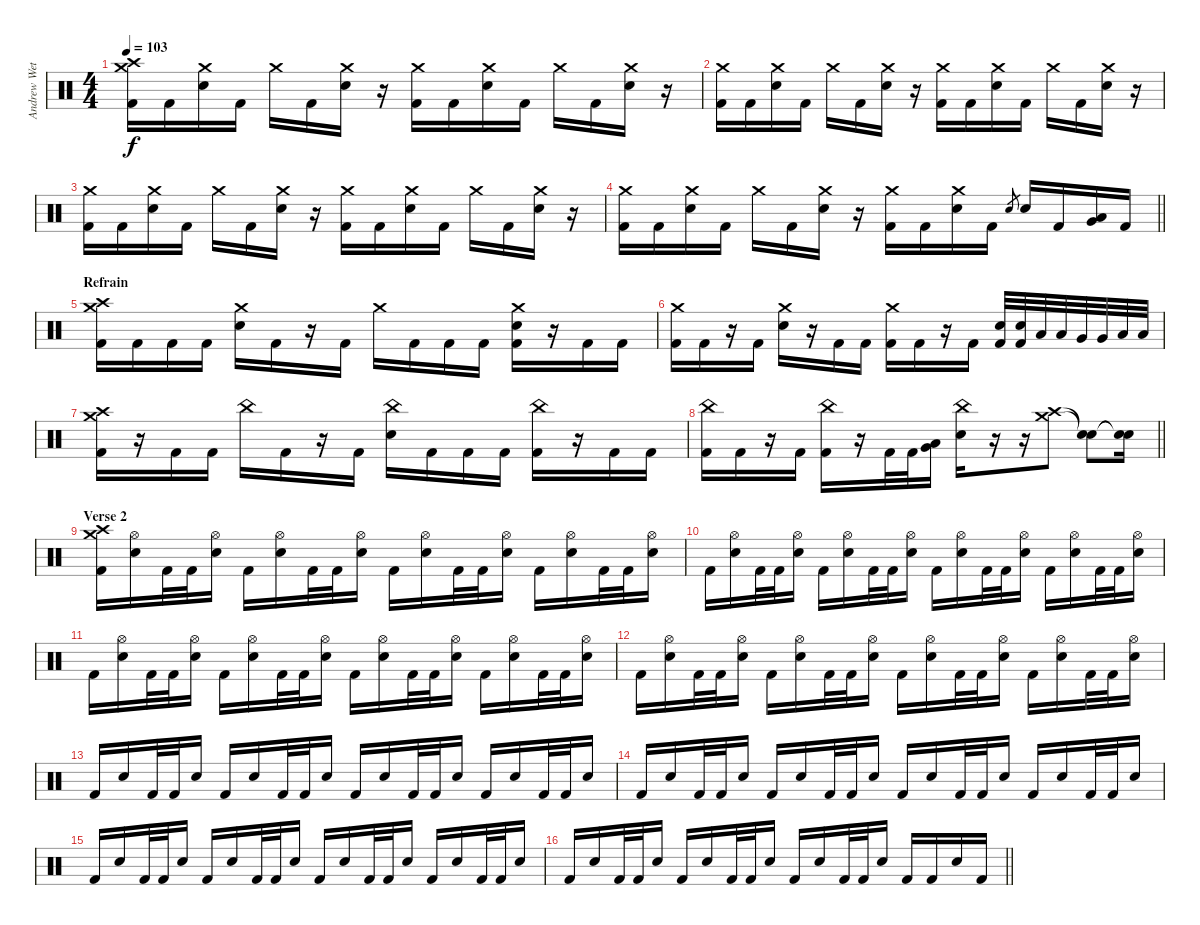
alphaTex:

\track ("Andrew Wetzel - Drums" "Andrew Wet") {instrument percussion}
\staff {score}
\articulation defaults
\ts (4 4)
\tempo 103
\clef neutral
\ks c
("Crash high (hit)" "Crash medium (hit)" "Kick (hit) 2").16{dy f} "Kick (hit) 2".16 ("Crash medium (hit)" "Electric Snare (hit)").16 "Kick (hit) 2".16 "Crash medium (hit)".16 "Kick (hit) 2".16 ("Crash medium (hit)" "Electric Snare (hit)").16 r.16 ("Crash medium (hit)" "Kick (hit) 2").16 "Kick (hit) 2".16 ("Crash medium (hit)" "Electric Snare (hit)").16 "Kick (hit) 2".16 "Crash medium (hit)".16 "Kick (hit) 2".16 ("Crash medium (hit)" "Electric Snare (hit)").16 r.16 |
("Crash medium (hit)" "Kick (hit) 2").16 "Kick (hit) 2".16 ("Crash medium (hit)" "Electric Snare (hit)").16 "Kick (hit) 2".16 "Crash medium (hit)".16 "Kick (hit) 2".16 ("Crash medium (hit)" "Electric Snare (hit)").16 r.16 ("Crash medium (hit)" "Kick (hit) 2").16 "Kick (hit) 2".16 ("Crash medium (hit)" "Electric Snare (hit)").16 "Kick (hit) 2".16 "Crash medium (hit)".16 "Kick (hit) 2".16 ("Crash medium (hit)" "Electric Snare (hit)").16 r.16 |
("Crash medium (hit)" "Kick (hit) 2").16 "Kick (hit) 2".16 ("Crash medium (hit)" "Electric Snare (hit)").16 "Kick (hit) 2".16 "Crash medium (hit)".16 "Kick (hit) 2".16 ("Crash medium (hit)" "Electric Snare (hit)").16 r.16 ("Crash medium (hit)" "Kick (hit) 2").16 "Kick (hit) 2".16 ("Crash medium (hit)" "Electric Snare (hit)").16 "Kick (hit) 2".16 "Crash medium (hit)".16 "Kick (hit) 2".16 ("Crash medium (hit)" "Electric Snare (hit)").16 r.16 |
\barLineRight lightlight
("Crash medium (hit)" "Kick (hit) 2").16 "Kick (hit) 2".16 ("Crash medium (hit)" "Electric Snare (hit)").16 "Kick (hit) 2".16 "Crash medium (hit)".16 "Kick (hit) 2".16 ("Crash medium (hit)" "Electric Snare (hit)").16 r.16 ("Crash medium (hit)" "Kick (hit) 2").16 "Kick (hit) 2".16 ("Crash medium (hit)" "Electric Snare (hit)").16 "Kick (hit) 2".16 "Electric Snare (hit)".8{gr} "Electric Snare (hit)".16 "Kick (hit) 2".16 ("Very Low Tom (hit)" "Low Floor Tom (hit)").16 "Kick (hit) 2".16 |
\section ("" "Refrain")
("Crash high (hit)" "Crash medium (hit)" "Kick (hit) 2").16 "Kick (hit) 2".16 "Kick (hit) 2".16 "Kick (hit) 2".16 ("Crash medium (hit)" "Electric Snare (hit)").16 "Kick (hit) 2".16 r.16 "Kick (hit) 2".16 "Crash medium (hit)".16 "Kick (hit) 2".16 "Kick (hit) 2".16 "Kick (hit) 2".16 ("Crash medium (hit)" "Electric Snare (hit)" "Kick (hit) 2").16 r.16 "Kick (hit) 2".16 "Kick (hit) 2".16 |
("Crash medium (hit)" "Kick (hit) 2").16 "Kick (hit) 2".16 r.16 "Kick (hit) 2".16 ("Crash medium (hit)" "Electric Snare (hit)").16 r.16 "Kick (hit) 2".16 "Kick (hit) 2".16 ("Crash medium (hit)" "Kick (hit) 2").16 "Kick (hit) 2".16 r.16 "Kick (hit) 2".16 ("Electric Snare (hit)" "Kick (hit) 2").32 ("Electric Snare (hit)" "Kick (hit) 2").32 "Low Tom (hit)".32 "Low Tom (hit)".32 "Very Low Tom (hit)".32 "Very Low Tom (hit)".32 "Low Floor Tom (hit)".32 "Low Floor Tom (hit)".32 |
("Crash high (hit)" "Crash medium (hit)" "Kick (hit) 2").16 r.16 "Kick (hit) 2".16 "Kick (hit) 2".16 "China (hit)".16 "Kick (hit) 2".16 r.16 "Kick (hit) 2".16 ("China (hit)" "Electric Snare (hit)").16 "Kick (hit) 2".16 "Kick (hit) 2".16 "Kick (hit) 2".16 ("China (hit)" "Kick (hit) 2").16 r.16 "Kick (hit) 2".16 "Kick (hit) 2".16 |
\barLineRight lightlight
("China (hit)" "Kick (hit) 2").16 "Kick (hit) 2".16 r.16 "Kick (hit) 2".16 ("China (hit)" "Kick (hit) 2").16 r.16 "Kick (hit) 2".32 "Kick (hit) 2".32 ("Very Low Tom (hit)" "Low Floor Tom (hit)").16 ("China (hit)" "Electric Snare (hit)").16 r.16 r.16{volume 0} ("Crash high (hit)" "Crash medium (hit)").8{volume 13} ("Snare (hit)"{t} "Snare (hit)"{t}).8 ("Snare (hit)"{t} "Snare (hit)"{t}).16 |
\section ("" "Verse 2")
("Crash high (hit)" "Crash medium (hit)" "Kick (hit) 2").16 ("Hi-Hat (open)" "Electric Snare (hit)").16 "Kick (hit) 2".32 "Kick (hit) 2".32 ("Hi-Hat (open)" "Electric Snare (hit)").16 "Kick (hit) 2".16 ("Hi-Hat (open)" "Electric Snare (hit)").16 "Kick (hit) 2".32 "Kick (hit) 2".32 ("Hi-Hat (open)" "Electric Snare (hit)").16 "Kick (hit) 2".16 ("Hi-Hat (open)" "Electric Snare (hit)").16 "Kick (hit) 2".32 "Kick (hit) 2".32 ("Hi-Hat (open)" "Electric Snare (hit)").16 "Kick (hit) 2".16 ("Hi-Hat (open)" "Electric Snare (hit)").16 "Kick (hit) 2".32 "Kick (hit) 2".32 ("Hi-Hat (open)" "Electric Snare (hit)").16 |
"Kick (hit) 2".16 ("Hi-Hat (open)" "Electric Snare (hit)").16 "Kick (hit) 2".32 "Kick (hit) 2".32 ("Hi-Hat (open)" "Electric Snare (hit)").16 "Kick (hit) 2".16 ("Hi-Hat (open)" "Electric Snare (hit)").16 "Kick (hit) 2".32 "Kick (hit) 2".32 ("Hi-Hat (open)" "Electric Snare (hit)").16 "Kick (hit) 2".16 ("Hi-Hat (open)" "Electric Snare (hit)").16 "Kick (hit) 2".32 "Kick (hit) 2".32 ("Hi-Hat (open)" "Electric Snare (hit)").16 "Kick (hit) 2".16 ("Hi-Hat (open)" "Electric Snare (hit)").16 "Kick (hit) 2".32 "Kick (hit) 2".32 ("Hi-Hat (open)" "Electric Snare (hit)").16 |
"Kick (hit) 2".16 ("Hi-Hat (open)" "Electric Snare (hit)").16 "Kick (hit) 2".32 "Kick (hit) 2".32 ("Hi-Hat (open)" "Electric Snare (hit)").16 "Kick (hit) 2".16 ("Hi-Hat (open)" "Electric Snare (hit)").16 "Kick (hit) 2".32 "Kick (hit) 2".32 ("Hi-Hat (open)" "Electric Snare (hit)").16 "Kick (hit) 2".16 ("Hi-Hat (open)" "Electric Snare (hit)").16 "Kick (hit) 2".32 "Kick (hit) 2".32 ("Hi-Hat (open)" "Electric Snare (hit)").16 "Kick (hit) 2".16 ("Hi-Hat (open)" "Electric Snare (hit)").16 "Kick (hit) 2".32 "Kick (hit) 2".32 ("Hi-Hat (open)" "Electric Snare (hit)").16 |
"Kick (hit) 2".16 ("Hi-Hat (open)" "Electric Snare (hit)").16 "Kick (hit) 2".32 "Kick (hit) 2".32 ("Hi-Hat (open)" "Electric Snare (hit)").16 "Kick (hit) 2".16 ("Hi-Hat (open)" "Electric Snare (hit)").16 "Kick (hit) 2".32 "Kick (hit) 2".32 ("Hi-Hat (open)" "Electric Snare (hit)").16 "Kick (hit) 2".16 ("Hi-Hat (open)" "Electric Snare (hit)").16 "Kick (hit) 2".32 "Kick (hit) 2".32 ("Hi-Hat (open)" "Electric Snare (hit)").16 "Kick (hit) 2".16 ("Hi-Hat (open)" "Electric Snare (hit)").16 "Kick (hit) 2".32 "Kick (hit) 2".32 ("Hi-Hat (open)" "Electric Snare (hit)").16 |
"Kick (hit) 2".16 "Electric Snare (hit)".16 "Kick (hit) 2".32 "Kick (hit) 2".32 "Electric Snare (hit)".16 "Kick (hit) 2".16 "Electric Snare (hit)".16 "Kick (hit) 2".32 "Kick (hit) 2".32 "Electric Snare (hit)".16 "Kick (hit) 2".16 "Electric Snare (hit)".16 "Kick (hit) 2".32 "Kick (hit) 2".32 "Electric Snare (hit)".16 "Kick (hit) 2".16 "Electric Snare (hit)".16 "Kick (hit) 2".32 "Kick (hit) 2".32 "Electric Snare (hit)".16 |
"Kick (hit) 2".16 "Electric Snare (hit)".16 "Kick (hit) 2".32 "Kick (hit) 2".32 "Electric Snare (hit)".16 "Kick (hit) 2".16 "Electric Snare (hit)".16 "Kick (hit) 2".32 "Kick (hit) 2".32 "Electric Snare (hit)".16 "Kick (hit) 2".16 "Electric Snare (hit)".16 "Kick (hit) 2".32 "Kick (hit) 2".32 "Electric Snare (hit)".16 "Kick (hit) 2".16 "Electric Snare (hit)".16 "Kick (hit) 2".32 "Kick (hit) 2".32 "Electric Snare (hit)".16 |
"Kick (hit) 2".16 "Electric Snare (hit)".16 "Kick (hit) 2".32 "Kick (hit) 2".32 "Electric Snare (hit)".16 "Kick (hit) 2".16 "Electric Snare (hit)".16 "Kick (hit) 2".32 "Kick (hit) 2".32 "Electric Snare (hit)".16 "Kick (hit) 2".16 "Electric Snare (hit)".16 "Kick (hit) 2".32 "Kick (hit) 2".32 "Electric Snare (hit)".16 "Kick (hit) 2".16 "Electric Snare (hit)".16 "Kick (hit) 2".32 "Kick (hit) 2".32 "Electric Snare (hit)".16 |
\barLineRight lightlight "Kick (hit) 2".16 "Electric Snare (hit)".16 "Kick (hit) 2".32 "Kick (hit) 2".32 "Electric Snare (hit)".16 "Kick (hit) 2".16 "Electric Snare (hit)".16 "Kick (hit) 2".32 "Kick (hit) 2".32 "Electric Snare (hit)".16 "Kick (hit) 2".16 "Electric Snare (hit)".16 "Kick (hit) 2".32 "Kick (hit) 2".32 "Electric Snare (hit)".16 "Kick (hit) 2".16 "Kick (hit) 2".16 "Electric Snare (hit)".16 "Kick (hit) 2".16
